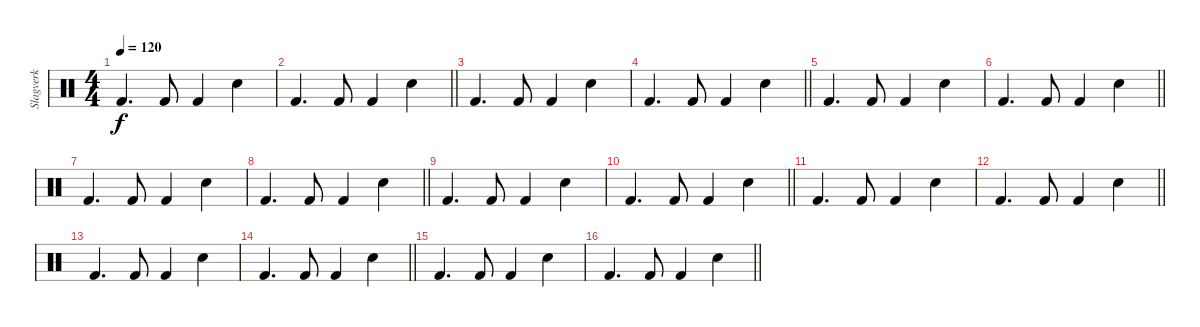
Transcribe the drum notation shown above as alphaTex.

\track ("Slagverk" "Slagverk") {instrument percussion}
\staff {score}
\articulation defaults
\ts (4 4)
\tempo 120
\clef neutral
\ks c "Kick (hit) 2".4{d dy f} "Kick (hit) 2".8 "Kick (hit) 2".4 "Snare (hit) 2".4
|
\barLineRight lightlight "Kick (hit) 2".4{d} "Kick (hit) 2".8 "Kick (hit) 2".4 "Snare (hit) 2".4
|
"Kick (hit) 2".4{d} "Kick (hit) 2".8 "Kick (hit) 2".4 "Snare (hit) 2".4 |
\barLineRight lightlight "Kick (hit) 2".4{d} "Kick (hit) 2".8 "Kick (hit) 2".4 "Snare (hit) 2".4
|
"Kick (hit) 2".4{d} "Kick (hit) 2".8 "Kick (hit) 2".4 "Snare (hit) 2".4 |
\barLineRight lightlight "Kick (hit) 2".4{d} "Kick (hit) 2".8 "Kick (hit) 2".4 "Snare (hit) 2".4
|
"Kick (hit) 2".4{d} "Kick (hit) 2".8 "Kick (hit) 2".4 "Snare (hit) 2".4 |
\barLineRight lightlight "Kick (hit) 2".4{d} "Kick (hit) 2".8 "Kick (hit) 2".4 "Snare (hit) 2".4
|
"Kick (hit) 2".4{d} "Kick (hit) 2".8 "Kick (hit) 2".4 "Snare (hit) 2".4 |
\barLineRight lightlight "Kick (hit) 2".4{d} "Kick (hit) 2".8 "Kick (hit) 2".4 "Snare (hit) 2".4
|
"Kick (hit) 2".4{d} "Kick (hit) 2".8 "Kick (hit) 2".4 "Snare (hit) 2".4 |
\barLineRight lightlight "Kick (hit) 2".4{d} "Kick (hit) 2".8 "Kick (hit) 2".4 "Snare (hit) 2".4
|
"Kick (hit) 2".4{d} "Kick (hit) 2".8 "Kick (hit) 2".4 "Snare (hit) 2".4 |
\barLineRight lightlight "Kick (hit) 2".4{d} "Kick (hit) 2".8 "Kick (hit) 2".4 "Snare (hit) 2".4
|
"Kick (hit) 2".4{d} "Kick (hit) 2".8 "Kick (hit) 2".4 "Snare (hit) 2".4 |
\barLineRight lightlight "Kick (hit) 2".4{d} "Kick (hit) 2".8 "Kick (hit) 2".4 "Snare (hit) 2".4
